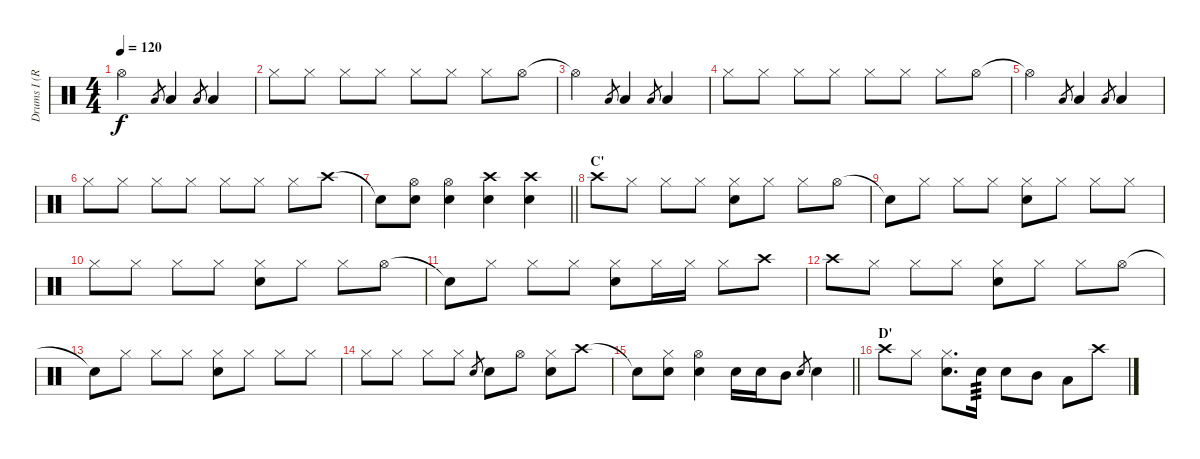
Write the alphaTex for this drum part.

\track ("Drums I (Ruka)" "Drums I (R") {instrument percussion}
\staff {score}
\articulation defaults
\ts (4 4)
\tempo 120
\clef neutral
\ks c "Hi-Hat (open)"{t}.2{dy f} "Low Tom (hit)".8{gr} "Low Tom (hit)".4 "Low Tom (hit)".8{gr} "Low Tom (hit)".4
|
"Hi-Hat (closed)".8 "Hi-Hat (closed)".8 "Hi-Hat (closed)".8 "Hi-Hat (closed)".8 "Hi-Hat (closed)".8 "Hi-Hat (closed)".8 "Hi-Hat (closed)".8 "Hi-Hat (open)".8 |
"Hi-Hat (open)"{t}.2 "Low Tom (hit)".8{gr} "Low Tom (hit)".4 "Low Tom (hit)".8{gr} "Low Tom (hit)".4 |
"Hi-Hat (closed)".8 "Hi-Hat (closed)".8 "Hi-Hat (closed)".8 "Hi-Hat (closed)".8 "Hi-Hat (closed)".8 "Hi-Hat (closed)".8 "Hi-Hat (closed)".8 "Hi-Hat (open)".8 |
"Hi-Hat (open)"{t}.2 "Low Tom (hit)".8{gr} "Low Tom (hit)".4 "Low Tom (hit)".8{gr} "Low Tom (hit)".4 |
"Hi-Hat (closed)".8 "Hi-Hat (closed)".8 "Hi-Hat (closed)".8 "Hi-Hat (closed)".8 "Hi-Hat (closed)".8 "Hi-Hat (closed)".8 "Hi-Hat (closed)".8 "Crash high (hit)".8 |
\barLineRight lightlight "Snare (hit)"{t}.8
("Hi-Hat (open)" "Snare (hit) 2").8 ("Hi-Hat (open)" "Snare (hit) 2").4 ("Crash high (hit)" "Snare (hit) 2").4 ("Crash high (hit)" "Snare (hit) 2").4 |
\section ("" "C'")
"Crash high (hit)".8 "Hi-Hat (closed)".8 "Hi-Hat (closed)".8 "Hi-Hat (closed)".8 ("Hi-Hat (closed)" "Snare (hit) 2").8 "Hi-Hat (closed)".8 "Hi-Hat (closed)".8 "Hi-Hat (open)".8 |
"Snare (hit)"{t}.8 "Hi-Hat (closed)".8 "Hi-Hat (closed)".8 "Hi-Hat (closed)".8 ("Hi-Hat (closed)" "Snare (hit) 2").8 "Hi-Hat (closed)".8 "Hi-Hat (closed)".8 "Hi-Hat (closed)".8 |
"Hi-Hat (closed)".8 "Hi-Hat (closed)".8 "Hi-Hat (closed)".8 "Hi-Hat (closed)".8 ("Hi-Hat (closed)" "Snare (hit) 2").8 "Hi-Hat (closed)".8 "Hi-Hat (closed)".8 "Hi-Hat (open)".8 |
"Snare (hit)"{t}.8 "Hi-Hat (closed)".8 "Hi-Hat (closed)".8 "Hi-Hat (closed)".8 ("Hi-Hat (closed)" "Snare (hit) 2").8 "Hi-Hat (closed)".16 "Hi-Hat (closed)".16 "Hi-Hat (closed)".8 "Crash high (hit)".8 |
"Crash high (hit)".8 "Hi-Hat (closed)".8 "Hi-Hat (closed)".8 "Hi-Hat (closed)".8 ("Hi-Hat (closed)" "Snare (hit) 2").8 "Hi-Hat (closed)".8 "Hi-Hat (closed)".8 "Hi-Hat (open)".8 |
"Snare (hit)"{t}.8 "Hi-Hat (closed)".8 "Hi-Hat (closed)".8 "Hi-Hat (closed)".8 ("Hi-Hat (closed)" "Snare (hit) 2").8 "Hi-Hat (closed)".8 "Hi-Hat (closed)".8 "Hi-Hat (closed)".8 |
"Hi-Hat (closed)".8 "Hi-Hat (closed)".8 "Hi-Hat (closed)".8 "Hi-Hat (closed)".8 "Snare (hit) 2".8{gr} "Snare (hit) 2".8 "Hi-Hat (open)".8 ("Hi-Hat (closed)" "Snare (hit) 2").8 "Crash high (hit)".8 |
\barLineRight lightlight "Snare (hit)"{t}.8
("Hi-Hat (closed)" "Snare (hit) 2").8 ("Hi-Hat (open)" "Snare (hit) 2").4 "Snare (hit) 2".16 "Snare (hit) 2".16 "Mid Tom (hit)".8 "Snare (hit) 2".8{gr} "Snare (hit) 2".4 |
\section ("" "D'")
"Crash high (hit)".8 "Hi-Hat (closed)".8 ("Hi-Hat (closed)" "Snare (hit) 2").8{d} "Snare (hit) 2".16{tp 3} "Snare (hit) 2".8 "Mid Tom (hit)".8 "Low Floor Tom (hit)".8 "Crash high (hit)".8
